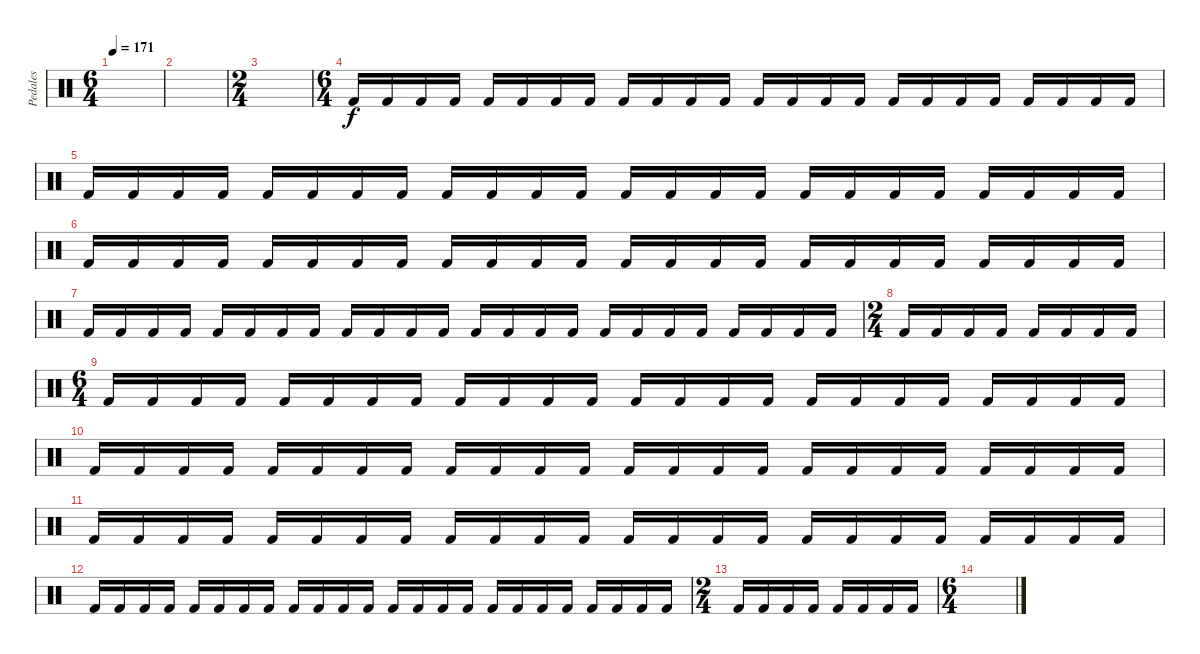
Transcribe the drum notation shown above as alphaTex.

\track ("Pedales" "Pedales") {instrument percussion}
\staff {score}
\articulation defaults
\ts (6 4)
\tempo 171
\clef neutral
\ks c
|
|
\ts (2 4)
|
\ts (6 4)
"Kick (hit) 2".16 "Kick (hit) 2".16 "Kick (hit) 2".16 "Kick (hit) 2".16 "Kick (hit) 2".16 "Kick (hit) 2".16 "Kick (hit) 2".16 "Kick (hit) 2".16 "Kick (hit) 2".16 "Kick (hit) 2".16 "Kick (hit) 2".16 "Kick (hit) 2".16 "Kick (hit) 2".16 "Kick (hit) 2".16 "Kick (hit) 2".16 "Kick (hit) 2".16 "Kick (hit) 2".16 "Kick (hit) 2".16 "Kick (hit) 2".16 "Kick (hit) 2".16 "Kick (hit) 2".16 "Kick (hit) 2".16 "Kick (hit) 2".16 "Kick (hit) 2".16 |
"Kick (hit) 2".16 "Kick (hit) 2".16 "Kick (hit) 2".16 "Kick (hit) 2".16 "Kick (hit) 2".16 "Kick (hit) 2".16 "Kick (hit) 2".16 "Kick (hit) 2".16 "Kick (hit) 2".16 "Kick (hit) 2".16 "Kick (hit) 2".16 "Kick (hit) 2".16 "Kick (hit) 2".16 "Kick (hit) 2".16 "Kick (hit) 2".16 "Kick (hit) 2".16 "Kick (hit) 2".16 "Kick (hit) 2".16 "Kick (hit) 2".16 "Kick (hit) 2".16 "Kick (hit) 2".16 "Kick (hit) 2".16 "Kick (hit) 2".16 "Kick (hit) 2".16 |
"Kick (hit) 2".16 "Kick (hit) 2".16 "Kick (hit) 2".16 "Kick (hit) 2".16 "Kick (hit) 2".16 "Kick (hit) 2".16 "Kick (hit) 2".16 "Kick (hit) 2".16 "Kick (hit) 2".16 "Kick (hit) 2".16 "Kick (hit) 2".16 "Kick (hit) 2".16 "Kick (hit) 2".16 "Kick (hit) 2".16 "Kick (hit) 2".16 "Kick (hit) 2".16 "Kick (hit) 2".16 "Kick (hit) 2".16 "Kick (hit) 2".16 "Kick (hit) 2".16 "Kick (hit) 2".16 "Kick (hit) 2".16 "Kick (hit) 2".16 "Kick (hit) 2".16 |
"Kick (hit) 2".16 "Kick (hit) 2".16 "Kick (hit) 2".16 "Kick (hit) 2".16 "Kick (hit) 2".16 "Kick (hit) 2".16 "Kick (hit) 2".16 "Kick (hit) 2".16 "Kick (hit) 2".16 "Kick (hit) 2".16 "Kick (hit) 2".16 "Kick (hit) 2".16 "Kick (hit) 2".16 "Kick (hit) 2".16 "Kick (hit) 2".16 "Kick (hit) 2".16 "Kick (hit) 2".16 "Kick (hit) 2".16 "Kick (hit) 2".16 "Kick (hit) 2".16 "Kick (hit) 2".16 "Kick (hit) 2".16 "Kick (hit) 2".16 "Kick (hit) 2".16 |
\ts (2 4)
"Kick (hit) 2".16 "Kick (hit) 2".16 "Kick (hit) 2".16 "Kick (hit) 2".16 "Kick (hit) 2".16 "Kick (hit) 2".16 "Kick (hit) 2".16 "Kick (hit) 2".16 |
\ts (6 4)
"Kick (hit) 2".16 "Kick (hit) 2".16 "Kick (hit) 2".16 "Kick (hit) 2".16 "Kick (hit) 2".16 "Kick (hit) 2".16 "Kick (hit) 2".16 "Kick (hit) 2".16 "Kick (hit) 2".16 "Kick (hit) 2".16 "Kick (hit) 2".16 "Kick (hit) 2".16 "Kick (hit) 2".16 "Kick (hit) 2".16 "Kick (hit) 2".16 "Kick (hit) 2".16 "Kick (hit) 2".16 "Kick (hit) 2".16 "Kick (hit) 2".16 "Kick (hit) 2".16 "Kick (hit) 2".16 "Kick (hit) 2".16 "Kick (hit) 2".16 "Kick (hit) 2".16 |
"Kick (hit) 2".16 "Kick (hit) 2".16 "Kick (hit) 2".16 "Kick (hit) 2".16 "Kick (hit) 2".16 "Kick (hit) 2".16 "Kick (hit) 2".16 "Kick (hit) 2".16 "Kick (hit) 2".16 "Kick (hit) 2".16 "Kick (hit) 2".16 "Kick (hit) 2".16 "Kick (hit) 2".16 "Kick (hit) 2".16 "Kick (hit) 2".16 "Kick (hit) 2".16 "Kick (hit) 2".16 "Kick (hit) 2".16 "Kick (hit) 2".16 "Kick (hit) 2".16 "Kick (hit) 2".16 "Kick (hit) 2".16 "Kick (hit) 2".16 "Kick (hit) 2".16 |
"Kick (hit) 2".16 "Kick (hit) 2".16 "Kick (hit) 2".16 "Kick (hit) 2".16 "Kick (hit) 2".16 "Kick (hit) 2".16 "Kick (hit) 2".16 "Kick (hit) 2".16 "Kick (hit) 2".16 "Kick (hit) 2".16 "Kick (hit) 2".16 "Kick (hit) 2".16 "Kick (hit) 2".16 "Kick (hit) 2".16 "Kick (hit) 2".16 "Kick (hit) 2".16 "Kick (hit) 2".16 "Kick (hit) 2".16 "Kick (hit) 2".16 "Kick (hit) 2".16 "Kick (hit) 2".16 "Kick (hit) 2".16 "Kick (hit) 2".16 "Kick (hit) 2".16 |
"Kick (hit) 2".16 "Kick (hit) 2".16 "Kick (hit) 2".16 "Kick (hit) 2".16 "Kick (hit) 2".16 "Kick (hit) 2".16 "Kick (hit) 2".16 "Kick (hit) 2".16 "Kick (hit) 2".16 "Kick (hit) 2".16 "Kick (hit) 2".16 "Kick (hit) 2".16 "Kick (hit) 2".16 "Kick (hit) 2".16 "Kick (hit) 2".16 "Kick (hit) 2".16 "Kick (hit) 2".16 "Kick (hit) 2".16 "Kick (hit) 2".16 "Kick (hit) 2".16 "Kick (hit) 2".16 "Kick (hit) 2".16 "Kick (hit) 2".16 "Kick (hit) 2".16 |
\ts (2 4)
"Kick (hit) 2".16 "Kick (hit) 2".16 "Kick (hit) 2".16 "Kick (hit) 2".16 "Kick (hit) 2".16 "Kick (hit) 2".16 "Kick (hit) 2".16 "Kick (hit) 2".16 |
\ts (6 4)
